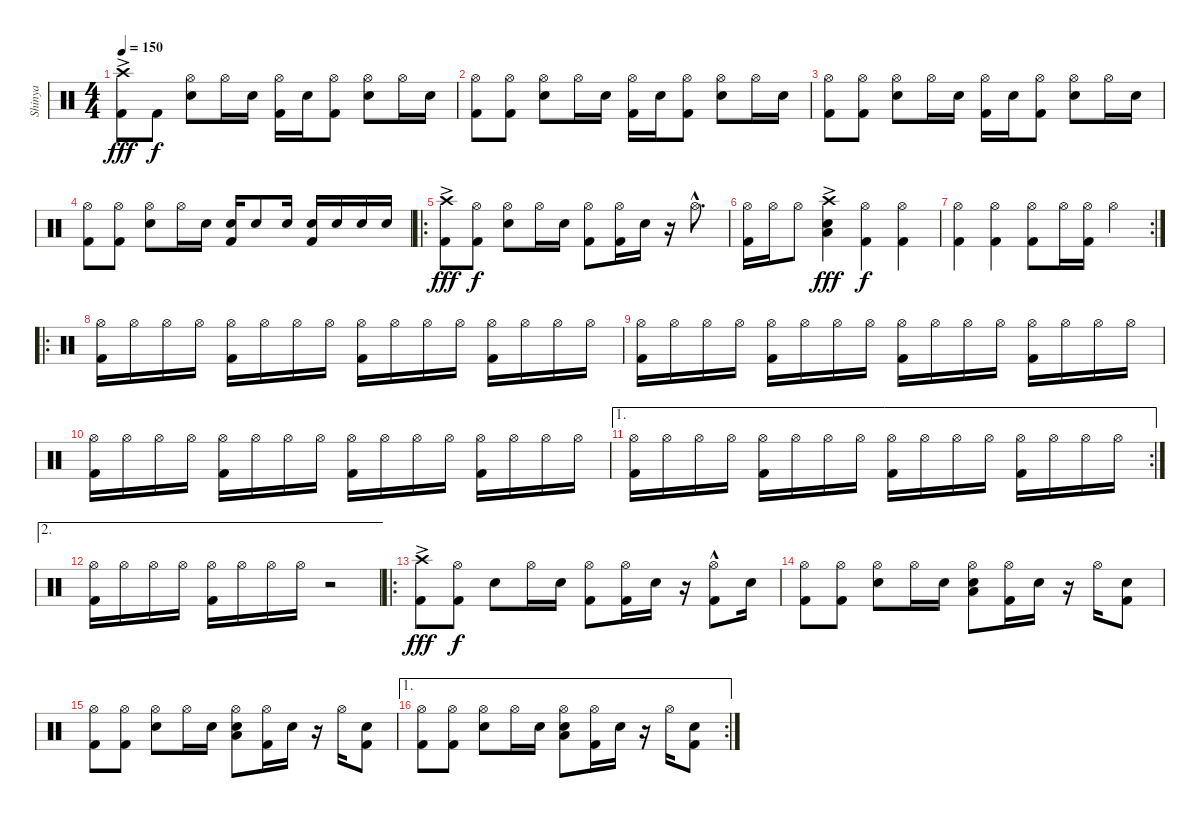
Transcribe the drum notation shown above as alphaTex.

\track ("Shinya" "Shinya") {instrument percussion}
\staff {score}
\articulation defaults
\ts (4 4)
\tempo 150
\clef neutral
\ks c
("Crash high (hit)"{ac} "Kick (hit) 2").8{dy fff} "Kick (hit) 2".8{dy f} ("Hi-Hat (open)" "Snare (hit) 2").8 "Hi-Hat (open)".16 "Snare (hit) 2".16 ("Hi-Hat (open)" "Kick (hit) 2").16 "Snare (hit) 2".16 ("Hi-Hat (open)" "Kick (hit) 2").8 ("Hi-Hat (open)" "Snare (hit) 2").8 "Hi-Hat (open)".16 "Snare (hit) 2".16 |
("Hi-Hat (open)" "Kick (hit) 2").8 ("Hi-Hat (open)" "Kick (hit) 2").8 ("Hi-Hat (open)" "Snare (hit) 2").8 "Hi-Hat (open)".16 "Snare (hit) 2".16 ("Hi-Hat (open)" "Kick (hit) 2").16 "Snare (hit) 2".16 ("Hi-Hat (open)" "Kick (hit) 2").8 ("Hi-Hat (open)" "Snare (hit) 2").8 "Hi-Hat (open)".16 "Snare (hit) 2".16 |
("Hi-Hat (open)" "Kick (hit) 2").8 ("Hi-Hat (open)" "Kick (hit) 2").8 ("Hi-Hat (open)" "Snare (hit) 2").8 "Hi-Hat (open)".16 "Snare (hit) 2".16 ("Hi-Hat (open)" "Kick (hit) 2").16 "Snare (hit) 2".16 ("Hi-Hat (open)" "Kick (hit) 2").8 ("Hi-Hat (open)" "Snare (hit) 2").8 "Hi-Hat (open)".16 "Snare (hit) 2".16 |
("Hi-Hat (open)" "Kick (hit) 2").8 ("Hi-Hat (open)" "Kick (hit) 2").8 ("Hi-Hat (open)" "Snare (hit) 2").8 "Hi-Hat (open)".16 "Snare (hit) 2".16 ("Kick (hit) 2" "Snare (hit) 2").16 "Snare (hit) 2".8 "Snare (hit) 2".16 ("Snare (hit) 2" "Kick (hit) 2").16 "Snare (hit) 2".16 "Snare (hit) 2".16 "Snare (hit) 2".16 |
\ro
("Crash high (hit)"{ac} "Kick (hit) 2").8{dy fff} ("Hi-Hat (open)" "Kick (hit) 2").8{dy f} ("Hi-Hat (open)" "Snare (hit) 2").8 "Hi-Hat (open)".16 "Snare (hit) 2".16 ("Hi-Hat (open)" "Kick (hit) 2").8 ("Hi-Hat (open)" "Kick (hit) 2").16 "Snare (hit) 2".16 r.16 "Hi-Hat (open)"{hac}.8{d} |
("Hi-Hat (open)" "Kick (hit) 2").16 "Hi-Hat (open)".16 "Hi-Hat (open)".8 ("Crash high (hit)"{ac} "Snare (hit) 2" "Low Floor Tom (hit)").4{dy fff} ("Hi-Hat (open)" "Kick (hit) 2").4{dy f} ("Hi-Hat (open)" "Kick (hit) 2").4 |
\rc 2
("Hi-Hat (open)" "Kick (hit) 2").4 ("Hi-Hat (open)" "Kick (hit) 2").4 ("Hi-Hat (open)" "Kick (hit) 2").8 "Hi-Hat (open)".16 ("Hi-Hat (open)" "Kick (hit) 2").16 "Hi-Hat (open)".4 |
\ro
("Hi-Hat (open)" "Kick (hit) 2").16 "Hi-Hat (open)".16 "Hi-Hat (open)".16 "Hi-Hat (open)".16 ("Hi-Hat (open)" "Kick (hit) 2").16 "Hi-Hat (open)".16 "Hi-Hat (open)".16 "Hi-Hat (open)".16 ("Hi-Hat (open)" "Kick (hit) 2").16 "Hi-Hat (open)".16 "Hi-Hat (open)".16 "Hi-Hat (open)".16 ("Hi-Hat (open)" "Kick (hit) 2").16 "Hi-Hat (open)".16 "Hi-Hat (open)".16 "Hi-Hat (open)".16 |
("Hi-Hat (open)" "Kick (hit) 2").16 "Hi-Hat (open)".16 "Hi-Hat (open)".16 "Hi-Hat (open)".16 ("Hi-Hat (open)" "Kick (hit) 2").16 "Hi-Hat (open)".16 "Hi-Hat (open)".16 "Hi-Hat (open)".16 ("Hi-Hat (open)" "Kick (hit) 2").16 "Hi-Hat (open)".16 "Hi-Hat (open)".16 "Hi-Hat (open)".16 ("Hi-Hat (open)" "Kick (hit) 2").16 "Hi-Hat (open)".16 "Hi-Hat (open)".16 "Hi-Hat (open)".16 |
("Hi-Hat (open)" "Kick (hit) 2").16 "Hi-Hat (open)".16 "Hi-Hat (open)".16 "Hi-Hat (open)".16 ("Hi-Hat (open)" "Kick (hit) 2").16 "Hi-Hat (open)".16 "Hi-Hat (open)".16 "Hi-Hat (open)".16 ("Hi-Hat (open)" "Kick (hit) 2").16 "Hi-Hat (open)".16 "Hi-Hat (open)".16 "Hi-Hat (open)".16 ("Hi-Hat (open)" "Kick (hit) 2").16 "Hi-Hat (open)".16 "Hi-Hat (open)".16 "Hi-Hat (open)".16 |
\ae 1
\rc 2
("Hi-Hat (open)" "Kick (hit) 2").16 "Hi-Hat (open)".16 "Hi-Hat (open)".16 "Hi-Hat (open)".16 ("Hi-Hat (open)" "Kick (hit) 2").16 "Hi-Hat (open)".16 "Hi-Hat (open)".16 "Hi-Hat (open)".16 ("Hi-Hat (open)" "Kick (hit) 2").16 "Hi-Hat (open)".16 "Hi-Hat (open)".16 "Hi-Hat (open)".16 ("Hi-Hat (open)" "Kick (hit) 2").16 "Hi-Hat (open)".16 "Hi-Hat (open)".16 "Hi-Hat (open)".16 |
\ae 2
("Hi-Hat (open)" "Kick (hit) 2").16 "Hi-Hat (open)".16 "Hi-Hat (open)".16 "Hi-Hat (open)".16 ("Hi-Hat (open)" "Kick (hit) 2").16 "Hi-Hat (open)".16 "Hi-Hat (open)".16 "Hi-Hat (open)".16 r.2 |
\ro
("Crash high (hit)"{ac} "Kick (hit) 2").8{dy fff} ("Hi-Hat (open)" "Kick (hit) 2").8{dy f} "Snare (hit) 2".8 "Hi-Hat (open)".16 "Snare (hit) 2".16 ("Hi-Hat (open)" "Kick (hit) 2").8 ("Hi-Hat (open)" "Kick (hit) 2").16 "Snare (hit) 2".16 r.16 ("Hi-Hat (open)" "Kick (hit) 2"{hac}).8 "Snare (hit) 2".16 |
("Hi-Hat (open)" "Kick (hit) 2").8 ("Hi-Hat (open)" "Kick (hit) 2").8 ("Hi-Hat (open)" "Snare (hit) 2").8 "Hi-Hat (open)".16 "Snare (hit) 2".16 ("Hi-Hat (open)" "Snare (hit) 2" "Low Floor Tom (hit)").8 ("Hi-Hat (open)" "Kick (hit) 2").16 "Snare (hit) 2".16 r.16 "Hi-Hat (open)".16 ("Snare (hit) 2" "Kick (hit) 2").8 |
("Hi-Hat (open)" "Kick (hit) 2").8 ("Hi-Hat (open)" "Kick (hit) 2").8 ("Hi-Hat (open)" "Snare (hit) 2").8 "Hi-Hat (open)".16 "Snare (hit) 2".16 ("Hi-Hat (open)" "Snare (hit) 2" "Low Floor Tom (hit)").8 ("Hi-Hat (open)" "Kick (hit) 2").16 "Snare (hit) 2".16 r.16 "Hi-Hat (open)".16 ("Snare (hit) 2" "Kick (hit) 2").8 |
\ae 1
\rc 2
("Hi-Hat (open)" "Kick (hit) 2").8 ("Hi-Hat (open)" "Kick (hit) 2").8 ("Hi-Hat (open)" "Snare (hit) 2").8 "Hi-Hat (open)".16 "Snare (hit) 2".16 ("Hi-Hat (open)" "Snare (hit) 2" "Low Floor Tom (hit)").8 ("Hi-Hat (open)" "Kick (hit) 2").16 "Snare (hit) 2".16 r.16 "Hi-Hat (open)".16 ("Snare (hit) 2" "Kick (hit) 2").8
